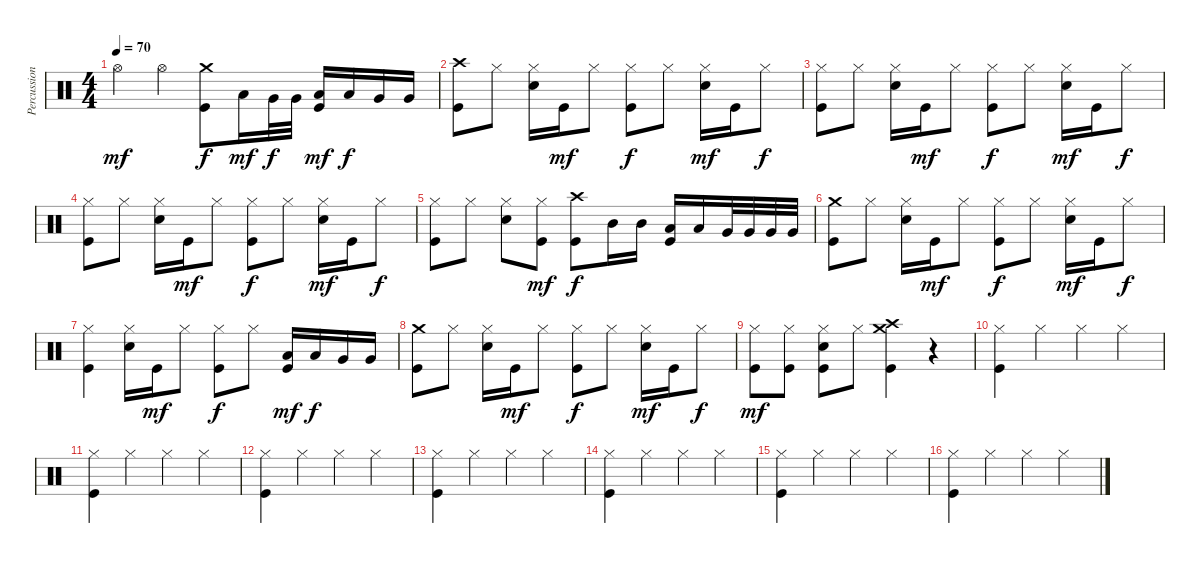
\track ("Percussion" "Percussion") {instrument percussion}
\staff {score}
\articulation defaults
\ts (4 4)
\tempo 70
\clef neutral
\ks c "Hi-Hat (open)".4{dy mf} "Hi-Hat (open)".4
("Crash medium (hit)" "Kick (hit)").8{dy f} "Low Tom (hit)".16{dy mf} "Very Low Tom (hit)".32{dy f} "Very Low Tom (hit)".32 ("Low Tom (hit)" "Kick (hit)").16{dy mf} "Low Tom (hit)".16{dy f} "Very Low Tom (hit)".16 "Very Low Tom (hit)".16 |
("Crash high (hit)" "Kick (hit)").8 "Hi-Hat (closed)".8 ("Hi-Hat (closed)" "Snare (hit) 2").16 "Kick (hit)".16{dy mf} "Hi-Hat (closed)".8 ("Hi-Hat (closed)" "Kick (hit)").8{dy f} "Hi-Hat (closed)".8 ("Hi-Hat (closed)" "Snare (hit) 2").16{dy mf} "Kick (hit)".16 "Hi-Hat (closed)".8{dy f} |
("Hi-Hat (closed)" "Kick (hit)").8 "Hi-Hat (closed)".8 ("Hi-Hat (closed)" "Snare (hit) 2").16 "Kick (hit)".16{dy mf} "Hi-Hat (closed)".8 ("Hi-Hat (closed)" "Kick (hit)").8{dy f} "Hi-Hat (closed)".8 ("Hi-Hat (closed)" "Snare (hit) 2").16{dy mf} "Kick (hit)".16 "Hi-Hat (closed)".8{dy f} |
("Hi-Hat (closed)" "Kick (hit)").8 "Hi-Hat (closed)".8 ("Hi-Hat (closed)" "Snare (hit) 2").16 "Kick (hit)".16{dy mf} "Hi-Hat (closed)".8 ("Hi-Hat (closed)" "Kick (hit)").8{dy f} "Hi-Hat (closed)".8 ("Hi-Hat (closed)" "Snare (hit) 2").16{dy mf} "Kick (hit)".16 "Hi-Hat (closed)".8{dy f} |
("Hi-Hat (closed)" "Kick (hit)").8 "Hi-Hat (closed)".8 ("Hi-Hat (closed)" "Snare (hit) 2").8 ("Hi-Hat (closed)" "Kick (hit)").8{dy mf} ("Crash high (hit)" "Kick (hit)").8{dy f} "Mid Tom (hit)".16 "Mid Tom (hit)".16 ("Low Tom (hit)" "Kick (hit)").16 "Low Tom (hit)".16 "Very Low Tom (hit)".32 "Very Low Tom (hit)".32 "Very Low Tom (hit)".32 "Very Low Tom (hit)".32 |
("Crash medium (hit)" "Kick (hit)").8 "Hi-Hat (closed)".8 ("Hi-Hat (closed)" "Snare (hit) 2").16 "Kick (hit)".16{dy mf} "Hi-Hat (closed)".8 ("Hi-Hat (closed)" "Kick (hit)").8{dy f} "Hi-Hat (closed)".8 ("Hi-Hat (closed)" "Snare (hit) 2").16{dy mf} "Kick (hit)".16 "Hi-Hat (closed)".8{dy f} |
("Hi-Hat (closed)" "Kick (hit)").4 ("Hi-Hat (closed)" "Snare (hit) 2").16 "Kick (hit)".16{dy mf} "Hi-Hat (closed)".8 ("Hi-Hat (closed)" "Kick (hit)").8{dy f} "Hi-Hat (closed)".8 ("Low Tom (hit)" "Kick (hit)").16{dy mf} "Low Tom (hit)".16{dy f} "Very Low Tom (hit)".16 "Very Low Tom (hit)".16 |
("Crash medium (hit)" "Kick (hit)").8 "Hi-Hat (closed)".8 ("Hi-Hat (closed)" "Snare (hit) 2").16 "Kick (hit)".16{dy mf} "Hi-Hat (closed)".8 ("Hi-Hat (closed)" "Kick (hit)").8{dy f} "Hi-Hat (closed)".8 ("Hi-Hat (closed)" "Snare (hit) 2").16{dy mf} "Kick (hit)".16 "Hi-Hat (closed)".8{dy f} |
("Hi-Hat (closed)" "Kick (hit)").8{dy mf} ("Hi-Hat (closed)" "Kick (hit)").8 ("Hi-Hat (closed)" "Snare (hit) 2" "Kick (hit)").8 "Hi-Hat (closed)".8 ("Crash medium (hit)" "Crash high (hit)" "Kick (hit)").4 r.4 |
("Hi-Hat (closed)" "Kick (hit)").4 "Hi-Hat (closed)".4 "Hi-Hat (closed)".4 "Hi-Hat (closed)".4 |
("Hi-Hat (closed)" "Kick (hit)").4 "Hi-Hat (closed)".4 "Hi-Hat (closed)".4 "Hi-Hat (closed)".4 |
("Hi-Hat (closed)" "Kick (hit)").4 "Hi-Hat (closed)".4 "Hi-Hat (closed)".4 "Hi-Hat (closed)".4 |
("Hi-Hat (closed)" "Kick (hit)").4 "Hi-Hat (closed)".4 "Hi-Hat (closed)".4 "Hi-Hat (closed)".4 |
("Hi-Hat (closed)" "Kick (hit)").4 "Hi-Hat (closed)".4 "Hi-Hat (closed)".4 "Hi-Hat (closed)".4 |
("Hi-Hat (closed)" "Kick (hit)").4 "Hi-Hat (closed)".4 "Hi-Hat (closed)".4 "Hi-Hat (closed)".4 |
("Hi-Hat (closed)" "Kick (hit)").4 "Hi-Hat (closed)".4 "Hi-Hat (closed)".4 "Hi-Hat (closed)".4
